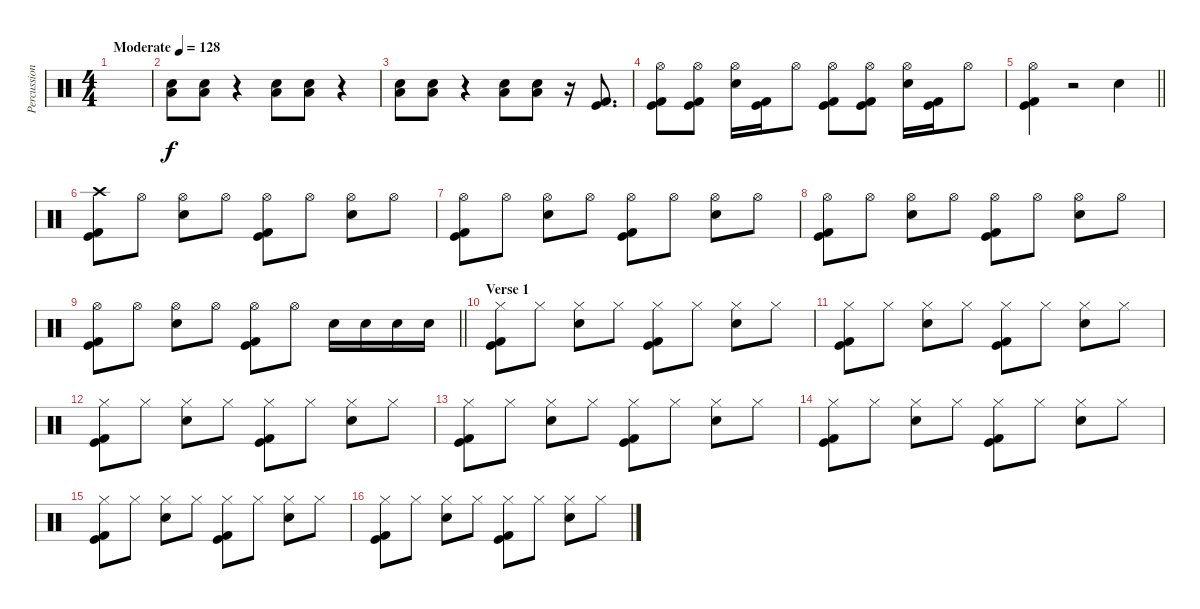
\track ("Percussion" "Percussion") {instrument percussion}
\staff {score}
\articulation defaults
\ts (4 4)
\tempo (128 "Moderate")
\clef neutral
\ks c
|
("Electric Snare (hit)" "Low Floor Tom (hit)").8 ("Electric Snare (hit)" "Low Floor Tom (hit)").8 r.4 ("Electric Snare (hit)" "Low Floor Tom (hit)").8 ("Electric Snare (hit)" "Low Floor Tom (hit)").8 r.4 |
("Electric Snare (hit)" "Low Floor Tom (hit)").8 ("Electric Snare (hit)" "Low Floor Tom (hit)").8 r.4 ("Electric Snare (hit)" "Low Floor Tom (hit)").8 ("Electric Snare (hit)" "Low Floor Tom (hit)").8 r.16 ("Kick (hit)" "Kick (hit) 2").8{d} |
("Hi-Hat (open)" "Kick (hit)" "Kick (hit) 2").8 ("Hi-Hat (open)" "Kick (hit)" "Kick (hit) 2").8 ("Hi-Hat (open)" "Electric Snare (hit)").16 ("Kick (hit)" "Kick (hit) 2").16 "Hi-Hat (open)".8 ("Hi-Hat (open)" "Kick (hit)" "Kick (hit) 2").8 ("Hi-Hat (open)" "Kick (hit)" "Kick (hit) 2").8 ("Hi-Hat (open)" "Electric Snare (hit)").16 ("Kick (hit)" "Kick (hit) 2").16 "Hi-Hat (open)".8 |
\barLineRight lightlight
("Hi-Hat (open)" "Kick (hit)" "Kick (hit) 2").4 r.2 "Electric Snare (hit)".4 |
\section ("" "")
("Crash high (hit)" "Kick (hit)" "Kick (hit) 2").8 "Hi-Hat (open)".8 ("Hi-Hat (open)" "Electric Snare (hit)").8 "Hi-Hat (open)".8 ("Hi-Hat (open)" "Kick (hit)" "Kick (hit) 2").8 "Hi-Hat (open)".8 ("Hi-Hat (open)" "Electric Snare (hit)").8 "Hi-Hat (open)".8 |
("Hi-Hat (open)" "Kick (hit)" "Kick (hit) 2").8 "Hi-Hat (open)".8 ("Hi-Hat (open)" "Electric Snare (hit)").8 "Hi-Hat (open)".8 ("Hi-Hat (open)" "Kick (hit)" "Kick (hit) 2").8 "Hi-Hat (open)".8 ("Hi-Hat (open)" "Electric Snare (hit)").8 "Hi-Hat (open)".8 |
("Hi-Hat (open)" "Kick (hit)" "Kick (hit) 2").8 "Hi-Hat (open)".8 ("Hi-Hat (open)" "Electric Snare (hit)").8 "Hi-Hat (open)".8 ("Hi-Hat (open)" "Kick (hit)" "Kick (hit) 2").8 "Hi-Hat (open)".8 ("Hi-Hat (open)" "Electric Snare (hit)").8 "Hi-Hat (open)".8 |
\barLineRight lightlight
("Hi-Hat (open)" "Kick (hit)" "Kick (hit) 2").8 "Hi-Hat (open)".8 ("Hi-Hat (open)" "Electric Snare (hit)").8 "Hi-Hat (open)".8 ("Hi-Hat (open)" "Kick (hit)" "Kick (hit) 2").8 "Hi-Hat (open)".8 "Electric Snare (hit)".16 "Electric Snare (hit)".16 "Electric Snare (hit)".16 "Electric Snare (hit)".16 |
\section ("" "Verse 1")
("Hi-Hat (closed)" "Kick (hit)" "Kick (hit) 2").8 "Hi-Hat (closed)".8 ("Hi-Hat (closed)" "Electric Snare (hit)").8 "Hi-Hat (closed)".8 ("Hi-Hat (closed)" "Kick (hit)" "Kick (hit) 2").8 "Hi-Hat (closed)".8 ("Hi-Hat (closed)" "Electric Snare (hit)").8 "Hi-Hat (closed)".8 |
("Hi-Hat (closed)" "Kick (hit)" "Kick (hit) 2").8 "Hi-Hat (closed)".8 ("Hi-Hat (closed)" "Electric Snare (hit)").8 "Hi-Hat (closed)".8 ("Hi-Hat (closed)" "Kick (hit)" "Kick (hit) 2").8 "Hi-Hat (closed)".8 ("Hi-Hat (closed)" "Electric Snare (hit)").8 "Hi-Hat (closed)".8 |
("Hi-Hat (closed)" "Kick (hit)" "Kick (hit) 2").8 "Hi-Hat (closed)".8 ("Hi-Hat (closed)" "Electric Snare (hit)").8 "Hi-Hat (closed)".8 ("Hi-Hat (closed)" "Kick (hit)" "Kick (hit) 2").8 "Hi-Hat (closed)".8 ("Hi-Hat (closed)" "Electric Snare (hit)").8 "Hi-Hat (closed)".8 |
("Hi-Hat (closed)" "Kick (hit)" "Kick (hit) 2").8 "Hi-Hat (closed)".8 ("Hi-Hat (closed)" "Electric Snare (hit)").8 "Hi-Hat (closed)".8 ("Hi-Hat (closed)" "Kick (hit)" "Kick (hit) 2").8 "Hi-Hat (closed)".8 ("Hi-Hat (closed)" "Electric Snare (hit)").8 "Hi-Hat (closed)".8 |
("Hi-Hat (closed)" "Kick (hit)" "Kick (hit) 2").8 "Hi-Hat (closed)".8 ("Hi-Hat (closed)" "Electric Snare (hit)").8 "Hi-Hat (closed)".8 ("Hi-Hat (closed)" "Kick (hit)" "Kick (hit) 2").8 "Hi-Hat (closed)".8 ("Hi-Hat (closed)" "Electric Snare (hit)").8 "Hi-Hat (closed)".8 |
("Hi-Hat (closed)" "Kick (hit)" "Kick (hit) 2").8 "Hi-Hat (closed)".8 ("Hi-Hat (closed)" "Electric Snare (hit)").8 "Hi-Hat (closed)".8 ("Hi-Hat (closed)" "Kick (hit)" "Kick (hit) 2").8 "Hi-Hat (closed)".8 ("Hi-Hat (closed)" "Electric Snare (hit)").8 "Hi-Hat (closed)".8 |
("Hi-Hat (closed)" "Kick (hit)" "Kick (hit) 2").8 "Hi-Hat (closed)".8 ("Hi-Hat (closed)" "Electric Snare (hit)").8 "Hi-Hat (closed)".8 ("Hi-Hat (closed)" "Kick (hit)" "Kick (hit) 2").8 "Hi-Hat (closed)".8 ("Hi-Hat (closed)" "Electric Snare (hit)").8 "Hi-Hat (closed)".8
